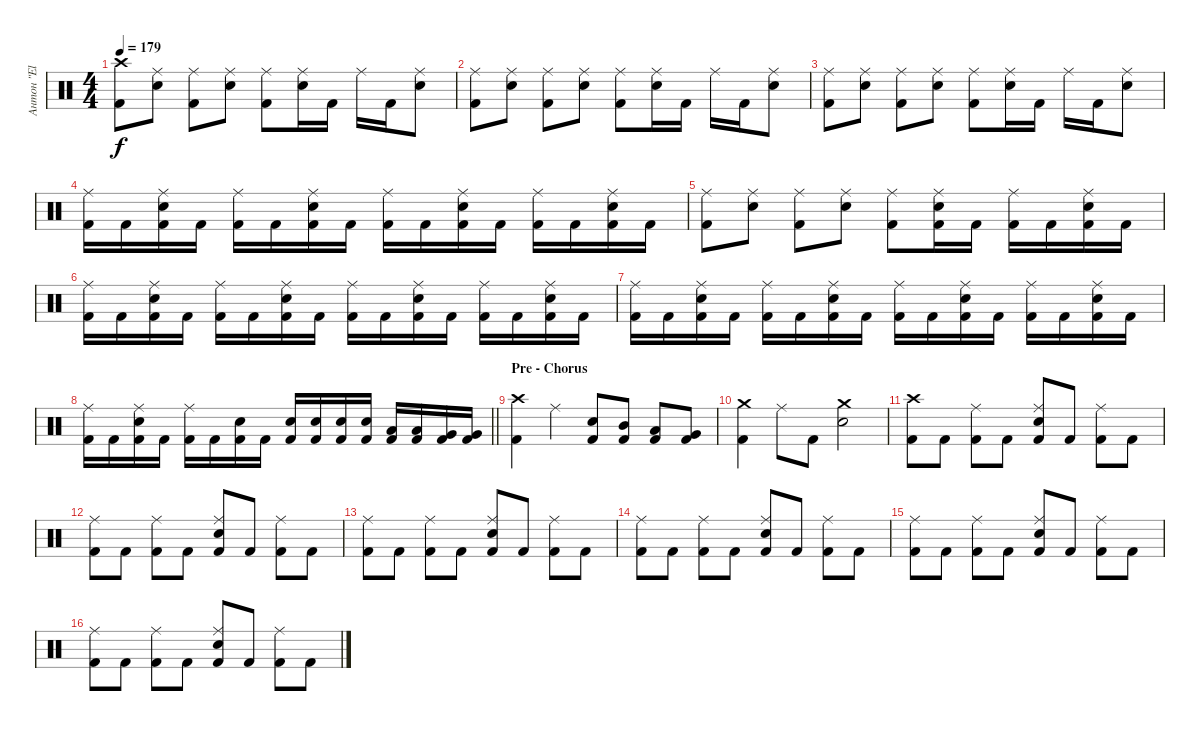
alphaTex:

\track ("Антон \"El Bastardo\" Смольянин" "Антон \"El ") {instrument percussion}
\staff {score}
\articulation defaults
\ts (4 4)
\tempo 179
\clef neutral
\ks c
("Crash high (hit)" "Kick (hit) 2").8{dy f} ("Ride (middle)" "Electric Snare (hit)").8 ("Ride (middle)" "Kick (hit) 2").8 ("Ride (middle)" "Electric Snare (hit)").8 ("Ride (middle)" "Kick (hit) 2").8 ("Ride (middle)" "Electric Snare (hit)").16 "Kick (hit) 2".16 "Ride (middle)".16 "Kick (hit) 2".16 ("Ride (middle)" "Electric Snare (hit)").8 |
("Ride (middle)" "Kick (hit) 2").8 ("Ride (middle)" "Electric Snare (hit)").8 ("Ride (middle)" "Kick (hit) 2").8 ("Ride (middle)" "Electric Snare (hit)").8 ("Ride (middle)" "Kick (hit) 2").8 ("Ride (middle)" "Electric Snare (hit)").16 "Kick (hit) 2".16 "Ride (middle)".16 "Kick (hit) 2".16 ("Ride (middle)" "Electric Snare (hit)").8 |
("Ride (middle)" "Kick (hit) 2").8 ("Ride (middle)" "Electric Snare (hit)").8 ("Ride (middle)" "Kick (hit) 2").8 ("Ride (middle)" "Electric Snare (hit)").8 ("Ride (middle)" "Kick (hit) 2").8 ("Ride (middle)" "Electric Snare (hit)").16 "Kick (hit) 2".16 "Ride (middle)".16 "Kick (hit) 2".16 ("Ride (middle)" "Electric Snare (hit)").8 |
("Ride (middle)" "Kick (hit) 2").16 "Kick (hit) 2".16 ("Ride (middle)" "Electric Snare (hit)" "Kick (hit) 2").16 "Kick (hit) 2".16 ("Ride (middle)" "Kick (hit) 2").16 "Kick (hit) 2".16 ("Ride (middle)" "Electric Snare (hit)" "Kick (hit) 2").16 "Kick (hit) 2".16 ("Ride (middle)" "Kick (hit) 2").16 "Kick (hit) 2".16 ("Ride (middle)" "Electric Snare (hit)" "Kick (hit) 2").16 "Kick (hit) 2".16 ("Ride (middle)" "Kick (hit) 2").16 "Kick (hit) 2".16 ("Ride (middle)" "Electric Snare (hit)" "Kick (hit) 2").16 "Kick (hit) 2".16 |
("Ride (middle)" "Kick (hit) 2").8 ("Ride (middle)" "Electric Snare (hit)").8 ("Ride (middle)" "Kick (hit) 2").8 ("Ride (middle)" "Electric Snare (hit)").8 ("Ride (middle)" "Kick (hit) 2").8 ("Ride (middle)" "Electric Snare (hit)" "Kick (hit) 2").16 "Kick (hit) 2".16 ("Ride (middle)" "Kick (hit) 2").16 "Kick (hit) 2".16 ("Ride (middle)" "Electric Snare (hit)" "Kick (hit) 2").16 "Kick (hit) 2".16 |
("Ride (middle)" "Kick (hit) 2").16 "Kick (hit) 2".16 ("Ride (middle)" "Electric Snare (hit)" "Kick (hit) 2").16 "Kick (hit) 2".16 ("Ride (middle)" "Kick (hit) 2").16 "Kick (hit) 2".16 ("Ride (middle)" "Electric Snare (hit)" "Kick (hit) 2").16 "Kick (hit) 2".16 ("Ride (middle)" "Kick (hit) 2").16 "Kick (hit) 2".16 ("Ride (middle)" "Electric Snare (hit)" "Kick (hit) 2").16 "Kick (hit) 2".16 ("Ride (middle)" "Kick (hit) 2").16 "Kick (hit) 2".16 ("Ride (middle)" "Electric Snare (hit)" "Kick (hit) 2").16 "Kick (hit) 2".16 |
("Ride (middle)" "Kick (hit) 2").16 "Kick (hit) 2".16 ("Ride (middle)" "Electric Snare (hit)" "Kick (hit) 2").16 "Kick (hit) 2".16 ("Ride (middle)" "Kick (hit) 2").16 "Kick (hit) 2".16 ("Ride (middle)" "Electric Snare (hit)" "Kick (hit) 2").16 "Kick (hit) 2".16 ("Ride (middle)" "Kick (hit) 2").16 "Kick (hit) 2".16 ("Ride (middle)" "Electric Snare (hit)" "Kick (hit) 2").16 "Kick (hit) 2".16 ("Ride (middle)" "Kick (hit) 2").16 "Kick (hit) 2".16 ("Ride (middle)" "Electric Snare (hit)" "Kick (hit) 2").16 "Kick (hit) 2".16 |
\barLineRight lightlight
("Ride (middle)" "Kick (hit) 2").16 "Kick (hit) 2".16 ("Ride (middle)" "Electric Snare (hit)" "Kick (hit) 2").16 "Kick (hit) 2".16 ("Ride (middle)" "Kick (hit) 2").16 "Kick (hit) 2".16 ("Electric Snare (hit)" "Kick (hit) 2").16 "Kick (hit) 2".16 ("Electric Snare (hit)" "Kick (hit) 2").16 ("Electric Snare (hit)" "Kick (hit) 2").16 ("Electric Snare (hit)" "Kick (hit) 2").16 ("Electric Snare (hit)" "Kick (hit) 2").16 ("Low Tom (hit)" "Kick (hit) 2").16 ("Low Tom (hit)" "Kick (hit) 2").16 ("Very Low Tom (hit)" "Kick (hit) 2").16 ("Very Low Tom (hit)" "Kick (hit) 2").16 |
\section ("" "Pre - Chorus")
("Crash high (hit)" "Kick (hit) 2").4 "Ride (middle)".4 ("Electric Snare (hit)" "Kick (hit) 2").8 ("Mid Tom (hit)" "Kick (hit) 2").8 ("Low Tom (hit)" "Kick (hit) 2").8 ("Very Low Tom (hit)" "Kick (hit) 2").8 |
("Crash medium (hit)" "Kick (hit) 2").4 "Ride (middle)".8 "Kick (hit) 2".8 ("Crash medium (hit)" "Electric Snare (hit)").2 |
("Crash high (hit)" "Kick (hit) 2").8 "Kick (hit) 2".8 ("Ride (middle)" "Kick (hit) 2").8 "Kick (hit) 2".8 ("Ride (middle)" "Electric Snare (hit)" "Kick (hit) 2").8 "Kick (hit) 2".8 ("Ride (middle)" "Kick (hit) 2").8 "Kick (hit) 2".8 |
("Ride (middle)" "Kick (hit) 2").8 "Kick (hit) 2".8 ("Ride (middle)" "Kick (hit) 2").8 "Kick (hit) 2".8 ("Ride (middle)" "Electric Snare (hit)" "Kick (hit) 2").8 "Kick (hit) 2".8 ("Ride (middle)" "Kick (hit) 2").8 "Kick (hit) 2".8 |
("Ride (middle)" "Kick (hit) 2").8 "Kick (hit) 2".8 ("Ride (middle)" "Kick (hit) 2").8 "Kick (hit) 2".8 ("Ride (middle)" "Electric Snare (hit)" "Kick (hit) 2").8 "Kick (hit) 2".8 ("Ride (middle)" "Kick (hit) 2").8 "Kick (hit) 2".8 |
("Ride (middle)" "Kick (hit) 2").8 "Kick (hit) 2".8 ("Ride (middle)" "Kick (hit) 2").8 "Kick (hit) 2".8 ("Ride (middle)" "Electric Snare (hit)" "Kick (hit) 2").8 "Kick (hit) 2".8 ("Ride (middle)" "Kick (hit) 2").8 "Kick (hit) 2".8 |
("Ride (middle)" "Kick (hit) 2").8 "Kick (hit) 2".8 ("Ride (middle)" "Kick (hit) 2").8 "Kick (hit) 2".8 ("Ride (middle)" "Electric Snare (hit)" "Kick (hit) 2").8 "Kick (hit) 2".8 ("Ride (middle)" "Kick (hit) 2").8 "Kick (hit) 2".8 |
("Ride (middle)" "Kick (hit) 2").8 "Kick (hit) 2".8 ("Ride (middle)" "Kick (hit) 2").8 "Kick (hit) 2".8 ("Ride (middle)" "Electric Snare (hit)" "Kick (hit) 2").8 "Kick (hit) 2".8 ("Ride (middle)" "Kick (hit) 2").8 "Kick (hit) 2".8
